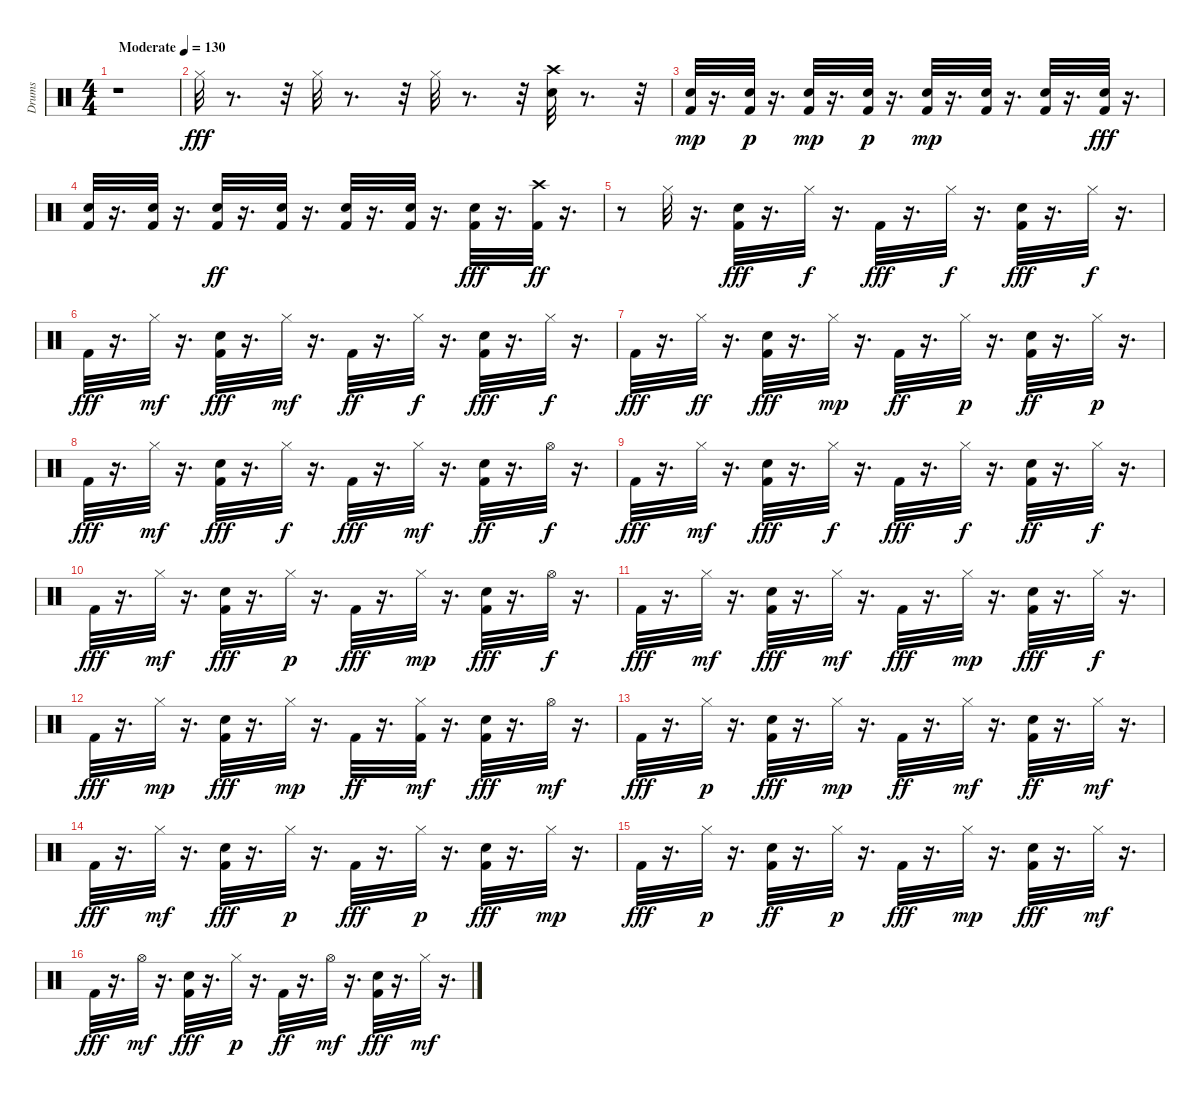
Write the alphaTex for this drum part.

\track ("Drums               " "Drums     ") {instrument percussion}
\staff {score}
\articulation defaults
\ts (4 4)
\tempo (130 "Moderate")
\clef neutral
\ks c
r.1{dy fff} |
"Hi-Hat (closed)".32 r.8{d} r.32 "Hi-Hat (closed)".32 r.8{d} r.32 "Hi-Hat (closed)".32 r.8{d} r.32 ("Snare (hit) 2" "Crash high (hit)").32 r.8{d} r.32 |
("Kick (hit) 2" "Snare (hit) 2").32{dy mp} r.16{d} ("Kick (hit) 2" "Snare (hit) 2").32{dy p} r.16{d} ("Kick (hit) 2" "Snare (hit) 2").32{dy mp} r.16{d} ("Kick (hit) 2" "Snare (hit) 2").32{dy p} r.16{d} ("Kick (hit) 2" "Snare (hit) 2").32{dy mp} r.16{d} ("Kick (hit) 2" "Snare (hit) 2").32 r.16{d} ("Kick (hit) 2" "Snare (hit) 2").32 r.16{d} ("Kick (hit) 2" "Snare (hit) 2").32{dy fff} r.16{d} |
("Kick (hit) 2" "Snare (hit) 2").32 r.16{d} ("Kick (hit) 2" "Snare (hit) 2").32 r.16{d} ("Kick (hit) 2" "Snare (hit) 2").32{dy ff} r.16{d} ("Kick (hit) 2" "Snare (hit) 2").32 r.16{d} ("Kick (hit) 2" "Snare (hit) 2").32 r.16{d} ("Kick (hit) 2" "Snare (hit) 2").32 r.16{d} ("Kick (hit) 2" "Snare (hit) 2").32{dy fff} r.16{d} ("Kick (hit) 2" "Crash high (hit)").32{dy ff} r.16{d} |
r.8 "Hi-Hat (closed)".32 r.16{d} ("Kick (hit) 2" "Snare (hit) 2").32{dy fff} r.16{d} "Hi-Hat (closed)".32{dy f} r.16{d} "Kick (hit) 2".32{dy fff} r.16{d} "Hi-Hat (closed)".32{dy f} r.16{d} ("Kick (hit) 2" "Snare (hit) 2").32{dy fff} r.16{d} "Hi-Hat (closed)".32{dy f} r.16{d} |
"Kick (hit) 2".32{dy fff} r.16{d} "Hi-Hat (closed)".32{dy mf} r.16{d} ("Kick (hit) 2" "Snare (hit) 2").32{dy fff} r.16{d} "Hi-Hat (closed)".32{dy mf} r.16{d} "Kick (hit) 2".32{dy ff} r.16{d} "Hi-Hat (closed)".32{dy f} r.16{d} ("Kick (hit) 2" "Snare (hit) 2").32{dy fff} r.16{d} "Hi-Hat (closed)".32{dy f} r.16{d} |
"Kick (hit) 2".32{dy fff} r.16{d} "Hi-Hat (closed)".32{dy ff} r.16{d} ("Kick (hit) 2" "Snare (hit) 2").32{dy fff} r.16{d} "Hi-Hat (closed)".32{dy mp} r.16{d} "Kick (hit) 2".32{dy ff} r.16{d} "Hi-Hat (closed)".32{dy p} r.16{d} ("Kick (hit) 2" "Snare (hit) 2").32{dy ff} r.16{d} "Hi-Hat (closed)".32{dy p} r.16{d} |
"Kick (hit) 2".32{dy fff} r.16{d} "Hi-Hat (closed)".32{dy mf} r.16{d} ("Kick (hit) 2" "Snare (hit) 2").32{dy fff} r.16{d} "Hi-Hat (closed)".32{dy f} r.16{d} "Kick (hit) 2".32{dy fff} r.16{d} "Hi-Hat (closed)".32{dy mf} r.16{d} ("Kick (hit) 2" "Snare (hit) 2").32{dy ff} r.16{d} "Hi-Hat (open)".32{dy f} r.16{d} |
"Kick (hit) 2".32{dy fff} r.16{d} "Hi-Hat (closed)".32{dy mf} r.16{d} ("Kick (hit) 2" "Snare (hit) 2").32{dy fff} r.16{d} "Hi-Hat (closed)".32{dy f} r.16{d} "Kick (hit) 2".32{dy fff} r.16{d} "Hi-Hat (closed)".32{dy f} r.16{d} ("Kick (hit) 2" "Snare (hit) 2").32{dy ff} r.16{d} "Hi-Hat (closed)".32{dy f} r.16{d} |
"Kick (hit) 2".32{dy fff} r.16{d} "Hi-Hat (closed)".32{dy mf} r.16{d} ("Kick (hit) 2" "Snare (hit) 2").32{dy fff} r.16{d} "Hi-Hat (closed)".32{dy p} r.16{d} "Kick (hit) 2".32{dy fff} r.16{d} "Hi-Hat (closed)".32{dy mp} r.16{d} ("Kick (hit) 2" "Snare (hit) 2").32{dy fff} r.16{d} "Hi-Hat (open)".32{dy f} r.16{d} |
"Kick (hit) 2".32{dy fff} r.16{d} "Hi-Hat (closed)".32{dy mf} r.16{d} ("Kick (hit) 2" "Snare (hit) 2").32{dy fff} r.16{d} "Hi-Hat (closed)".32{dy mf} r.16{d} "Kick (hit) 2".32{dy fff} r.16{d} "Hi-Hat (closed)".32{dy mp} r.16{d} ("Kick (hit) 2" "Snare (hit) 2").32{dy fff} r.16{d} "Hi-Hat (closed)".32{dy f} r.16{d} |
"Kick (hit) 2".32{dy fff} r.16{d} "Hi-Hat (closed)".32{dy mp} r.16{d} ("Kick (hit) 2" "Snare (hit) 2").32{dy fff} r.16{d} "Hi-Hat (closed)".32{dy mp} r.16{d} "Kick (hit) 2".32{dy ff} r.16{d} ("Kick (hit) 2" "Hi-Hat (closed)").32{dy mf} r.16{d} ("Kick (hit) 2" "Snare (hit) 2").32{dy fff} r.16{d} "Hi-Hat (open)".32{dy mf} r.16{d} |
"Kick (hit) 2".32{dy fff} r.16{d} "Hi-Hat (closed)".32{dy p} r.16{d} ("Kick (hit) 2" "Snare (hit) 2").32{dy fff} r.16{d} "Hi-Hat (closed)".32{dy mp} r.16{d} "Kick (hit) 2".32{dy ff} r.16{d} "Hi-Hat (closed)".32{dy mf} r.16{d} ("Kick (hit) 2" "Snare (hit) 2").32{dy ff} r.16{d} "Hi-Hat (closed)".32{dy mf} r.16{d} |
"Kick (hit) 2".32{dy fff} r.16{d} "Hi-Hat (closed)".32{dy mf} r.16{d} ("Kick (hit) 2" "Snare (hit) 2").32{dy fff} r.16{d} "Hi-Hat (closed)".32{dy p} r.16{d} "Kick (hit) 2".32{dy fff} r.16{d} "Hi-Hat (closed)".32{dy p} r.16{d} ("Kick (hit) 2" "Snare (hit) 2").32{dy fff} r.16{d} "Hi-Hat (closed)".32{dy mp} r.16{d} |
"Kick (hit) 2".32{dy fff} r.16{d} "Hi-Hat (closed)".32{dy p} r.16{d} ("Kick (hit) 2" "Snare (hit) 2").32{dy ff} r.16{d} "Hi-Hat (closed)".32{dy p} r.16{d} "Kick (hit) 2".32{dy fff} r.16{d} "Hi-Hat (closed)".32{dy mp} r.16{d} ("Kick (hit) 2" "Snare (hit) 2").32{dy fff} r.16{d} "Hi-Hat (closed)".32{dy mf} r.16{d} |
"Kick (hit) 2".32{dy fff} r.16{d} "Hi-Hat (open)".32{dy mf} r.16{d} ("Kick (hit) 2" "Snare (hit) 2").32{dy fff} r.16{d} "Hi-Hat (closed)".32{dy p} r.16{d} "Kick (hit) 2".32{dy ff} r.16{d} "Hi-Hat (open)".32{dy mf} r.16{d} ("Kick (hit) 2" "Snare (hit) 2").32{dy fff} r.16{d} "Hi-Hat (closed)".32{dy mf} r.16{d}
